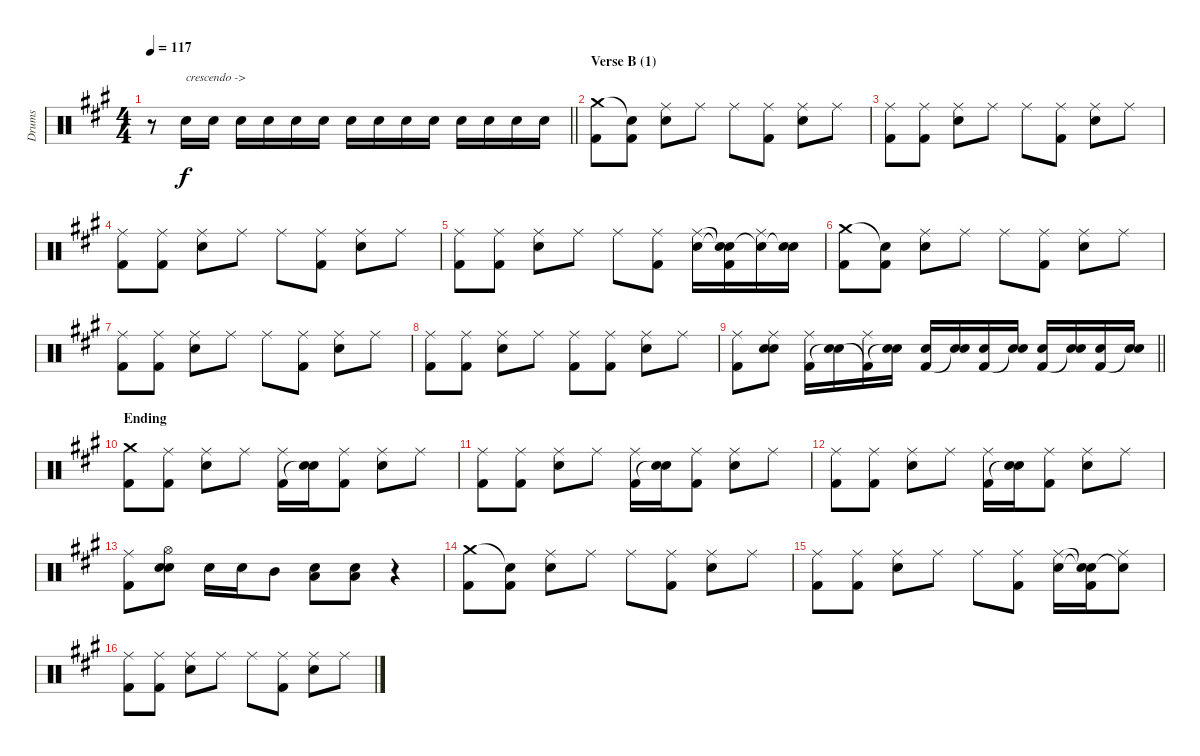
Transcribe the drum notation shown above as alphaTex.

\track ("Drums" "Drums") {instrument percussion}
\staff {score}
\articulation defaults
\ts (4 4)
\tempo 117
\clef neutral
\barLineRight lightlight
\ks f#minor
r.8{dy f} "Electric Snare (hit)".16{txt "crescendo ->"} "Electric Snare (hit)".16 "Electric Snare (hit)".16 "Electric Snare (hit)".16 "Electric Snare (hit)".16 "Electric Snare (hit)".16 "Electric Snare (hit)".16 "Electric Snare (hit)".16 "Electric Snare (hit)".16 "Electric Snare (hit)".16 "Electric Snare (hit)".16 "Electric Snare (hit)".16 "Electric Snare (hit)".16 "Electric Snare (hit)".16 |
\section ("" "Verse B (1)")
("Crash medium (hit)" "Kick (hit) 2").8 ("Snare (hit)"{t} "Kick (hit) 2").8 ("Ride (middle)" "Electric Snare (hit)").8 "Ride (middle)".8 "Ride (middle)".8 ("Ride (middle)" "Kick (hit) 2").8 ("Ride (middle)" "Electric Snare (hit)").8 "Ride (middle)".8 |
("Ride (middle)" "Kick (hit) 2").8 ("Ride (middle)" "Kick (hit) 2").8 ("Ride (middle)" "Electric Snare (hit)").8 "Ride (middle)".8 "Ride (middle)".8 ("Ride (middle)" "Kick (hit) 2").8 ("Ride (middle)" "Electric Snare (hit)").8 "Ride (middle)".8 |
("Ride (middle)" "Kick (hit) 2").8 ("Ride (middle)" "Kick (hit) 2").8 ("Ride (middle)" "Electric Snare (hit)").8 "Ride (middle)".8 "Ride (middle)".8 ("Ride (middle)" "Kick (hit) 2").8 ("Ride (middle)" "Electric Snare (hit)").8 "Ride (middle)".8 |
("Ride (middle)" "Kick (hit) 2").8 ("Ride (middle)" "Kick (hit) 2").8 ("Ride (middle)" "Electric Snare (hit)").8 "Ride (middle)".8 "Ride (middle)".8 ("Ride (middle)" "Kick (hit) 2").8 ("Ride (middle)" "Electric Snare (hit)").16 ("Snare (hit)"{t} "Snare (hit)"{t} "Kick (hit) 2").16 ("Ride (middle)" "Snare (hit)"{t}).16 ("Electric Snare (hit)" "Snare (hit)"{t}).16 |
("Crash medium (hit)" "Kick (hit) 2").8 ("Snare (hit)"{t} "Kick (hit) 2").8 ("Ride (middle)" "Electric Snare (hit)").8 "Ride (middle)".8 "Ride (middle)".8 ("Ride (middle)" "Kick (hit) 2").8 ("Ride (middle)" "Electric Snare (hit)").8 "Ride (middle)".8 |
("Ride (middle)" "Kick (hit) 2").8 ("Ride (middle)" "Kick (hit) 2").8 ("Ride (middle)" "Electric Snare (hit)").8 "Ride (middle)".8 "Ride (middle)".8 ("Ride (middle)" "Kick (hit) 2").8 ("Ride (middle)" "Electric Snare (hit)").8 "Ride (middle)".8 |
("Ride (middle)" "Kick (hit) 2").8 ("Ride (middle)" "Kick (hit) 2").8 ("Ride (middle)" "Electric Snare (hit)").8 "Ride (middle)".8 ("Ride (middle)" "Kick (hit) 2").8 ("Ride (middle)" "Kick (hit) 2").8 ("Ride (middle)" "Electric Snare (hit)").8 "Ride (middle)".8 |
\barLineRight lightlight
("Ride (middle)" "Kick (hit) 2").8 ("Ride (middle)" "Electric Snare (hit)" "Snare (hit)").8 ("Ride (middle)" "Kick (hit) 2").16 ("Electric Snare (hit)" "Snare (hit)"{t}).16 ("Ride (middle)" "Kick (hit) 2"{t}).16 ("Electric Snare (hit)" "Snare (hit)"{t}).16 ("Electric Snare (hit)" "Kick (hit) 2").16 ("Electric Snare (hit)" "Snare (hit)"{t}).16 ("Electric Snare (hit)" "Kick (hit) 2").16 ("Electric Snare (hit)" "Snare (hit)"{t}).16 ("Electric Snare (hit)" "Kick (hit) 2").16 ("Electric Snare (hit)" "Snare (hit)"{t}).16 ("Electric Snare (hit)" "Kick (hit) 2").16 ("Electric Snare (hit)" "Snare (hit)"{t}).16 |
\section ("" "Ending")
("Crash medium (hit)" "Kick (hit) 2").8 ("Ride (middle)" "Kick (hit) 2").8 ("Ride (middle)" "Electric Snare (hit)").8 "Ride (middle)".8 ("Ride (middle)" "Kick (hit) 2").16 ("Electric Snare (hit)" "Snare (hit)"{t}).16 ("Ride (middle)" "Kick (hit) 2").8 ("Ride (middle)" "Electric Snare (hit)").8 "Ride (middle)".8 |
("Ride (middle)" "Kick (hit) 2").8 ("Ride (middle)" "Kick (hit) 2").8 ("Ride (middle)" "Electric Snare (hit)").8 "Ride (middle)".8 ("Ride (middle)" "Kick (hit) 2").16 ("Electric Snare (hit)" "Snare (hit)"{t}).16 ("Ride (middle)" "Kick (hit) 2").8 ("Ride (middle)" "Electric Snare (hit)").8 "Ride (middle)".8 |
("Ride (middle)" "Kick (hit) 2").8 ("Ride (middle)" "Kick (hit) 2").8 ("Ride (middle)" "Electric Snare (hit)").8 "Ride (middle)".8 ("Ride (middle)" "Kick (hit) 2").16 ("Electric Snare (hit)" "Snare (hit)"{t}).16 ("Ride (middle)" "Kick (hit) 2").8 ("Ride (middle)" "Electric Snare (hit)").8 "Ride (middle)".8 |
("Ride (middle)" "Kick (hit) 2").8 ("Hi-Hat (open)" "Electric Snare (hit)" "Snare (hit)").8 "Electric Snare (hit)".16 "Electric Snare (hit)".16 "Mid Tom (hit)".8 ("Electric Snare (hit)" "Low Floor Tom (hit)").8 ("Electric Snare (hit)" "Low Floor Tom (hit)").8 r.4 |
("Crash medium (hit)" "Kick (hit) 2").8 ("Snare (hit)"{t} "Kick (hit) 2").8 ("Ride (middle)" "Electric Snare (hit)").8 "Ride (middle)".8 "Ride (middle)".8 ("Ride (middle)" "Kick (hit) 2").8 ("Ride (middle)" "Electric Snare (hit)").8 "Ride (middle)".8 |
("Ride (middle)" "Kick (hit) 2").8 ("Ride (middle)" "Kick (hit) 2").8 ("Ride (middle)" "Electric Snare (hit)").8 "Ride (middle)".8 "Ride (middle)".8 ("Ride (middle)" "Kick (hit) 2").8 ("Ride (middle)" "Electric Snare (hit)").16 ("Snare (hit)"{t} "Snare (hit)"{t} "Kick (hit) 2").16 ("Ride (middle)" "Snare (hit)"{t}).8 |
("Ride (middle)" "Kick (hit) 2").8 ("Ride (middle)" "Kick (hit) 2").8 ("Ride (middle)" "Electric Snare (hit)").8 "Ride (middle)".8 "Ride (middle)".8 ("Ride (middle)" "Kick (hit) 2").8 ("Ride (middle)" "Electric Snare (hit)").8 "Ride (middle)".8
